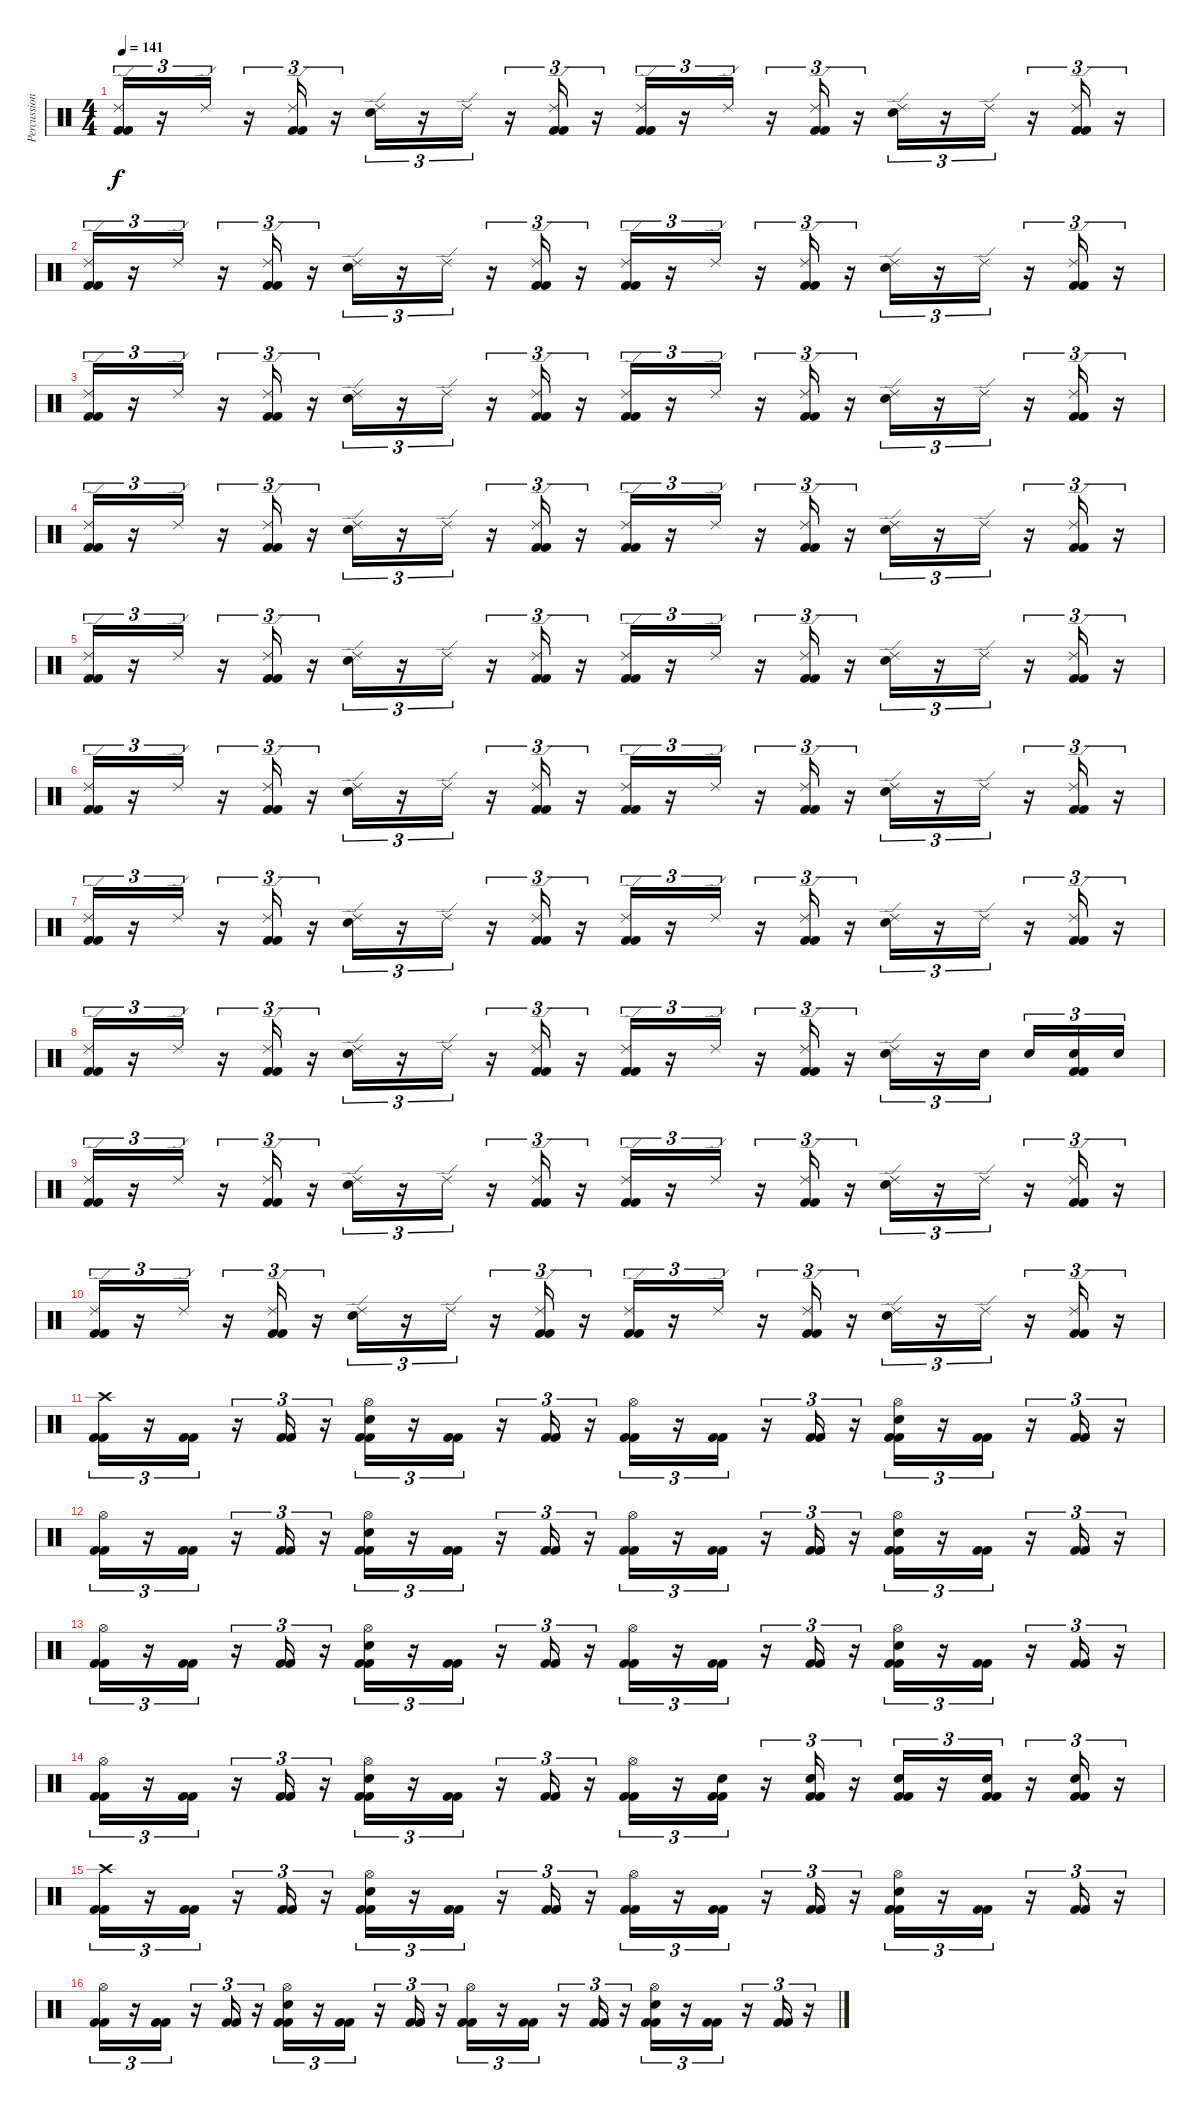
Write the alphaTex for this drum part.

\track ("Percussions" "Percussion") {instrument percussion}
\staff {score}
\articulation defaults
\ts (4 4)
\tempo 141
\clef neutral
\ks c
("Ride (edge) 2" "Kick (hit) 2" "Kick (hit) 2").16{tu (3 2) dy f} r.16{tu (3 2)} "Ride (edge) 2".16{tu (3 2)} r.16{tu (3 2)} ("Ride (edge) 2" "Kick (hit) 2" "Kick (hit) 2").16{tu (3 2)} r.16{tu (3 2)} ("Ride (edge) 2" "Snare (hit) 2").16{tu (3 2)} r.16{tu (3 2)} "Ride (edge) 2".16{tu (3 2)} r.16{tu (3 2)} ("Ride (edge) 2" "Kick (hit) 2" "Kick (hit) 2").16{tu (3 2)} r.16{tu (3 2)} ("Ride (edge) 2" "Kick (hit) 2" "Kick (hit) 2").16{tu (3 2)} r.16{tu (3 2)} "Ride (edge) 2".16{tu (3 2)} r.16{tu (3 2)} ("Ride (edge) 2" "Kick (hit) 2" "Kick (hit) 2").16{tu (3 2)} r.16{tu (3 2)} ("Ride (edge) 2" "Snare (hit) 2").16{tu (3 2)} r.16{tu (3 2)} "Ride (edge) 2".16{tu (3 2)} r.16{tu (3 2)} ("Ride (edge) 2" "Kick (hit) 2" "Kick (hit) 2").16{tu (3 2)} r.16{tu (3 2)} |
("Ride (edge) 2" "Kick (hit) 2" "Kick (hit) 2").16{tu (3 2)} r.16{tu (3 2)} "Ride (edge) 2".16{tu (3 2)} r.16{tu (3 2)} ("Ride (edge) 2" "Kick (hit) 2" "Kick (hit) 2").16{tu (3 2)} r.16{tu (3 2)} ("Ride (edge) 2" "Snare (hit) 2").16{tu (3 2)} r.16{tu (3 2)} "Ride (edge) 2".16{tu (3 2)} r.16{tu (3 2)} ("Ride (edge) 2" "Kick (hit) 2" "Kick (hit) 2").16{tu (3 2)} r.16{tu (3 2)} ("Ride (edge) 2" "Kick (hit) 2" "Kick (hit) 2").16{tu (3 2)} r.16{tu (3 2)} "Ride (edge) 2".16{tu (3 2)} r.16{tu (3 2)} ("Ride (edge) 2" "Kick (hit) 2" "Kick (hit) 2").16{tu (3 2)} r.16{tu (3 2)} ("Ride (edge) 2" "Snare (hit) 2").16{tu (3 2)} r.16{tu (3 2)} "Ride (edge) 2".16{tu (3 2)} r.16{tu (3 2)} ("Ride (edge) 2" "Kick (hit) 2" "Kick (hit) 2").16{tu (3 2)} r.16{tu (3 2)} |
("Ride (edge) 2" "Kick (hit) 2" "Kick (hit) 2").16{tu (3 2)} r.16{tu (3 2)} "Ride (edge) 2".16{tu (3 2)} r.16{tu (3 2)} ("Ride (edge) 2" "Kick (hit) 2" "Kick (hit) 2").16{tu (3 2)} r.16{tu (3 2)} ("Ride (edge) 2" "Snare (hit) 2").16{tu (3 2)} r.16{tu (3 2)} "Ride (edge) 2".16{tu (3 2)} r.16{tu (3 2)} ("Ride (edge) 2" "Kick (hit) 2" "Kick (hit) 2").16{tu (3 2)} r.16{tu (3 2)} ("Ride (edge) 2" "Kick (hit) 2" "Kick (hit) 2").16{tu (3 2)} r.16{tu (3 2)} "Ride (edge) 2".16{tu (3 2)} r.16{tu (3 2)} ("Ride (edge) 2" "Kick (hit) 2" "Kick (hit) 2").16{tu (3 2)} r.16{tu (3 2)} ("Ride (edge) 2" "Snare (hit) 2").16{tu (3 2)} r.16{tu (3 2)} "Ride (edge) 2".16{tu (3 2)} r.16{tu (3 2)} ("Ride (edge) 2" "Kick (hit) 2" "Kick (hit) 2").16{tu (3 2)} r.16{tu (3 2)} |
("Ride (edge) 2" "Kick (hit) 2" "Kick (hit) 2").16{tu (3 2)} r.16{tu (3 2)} "Ride (edge) 2".16{tu (3 2)} r.16{tu (3 2)} ("Ride (edge) 2" "Kick (hit) 2" "Kick (hit) 2").16{tu (3 2)} r.16{tu (3 2)} ("Ride (edge) 2" "Snare (hit) 2").16{tu (3 2)} r.16{tu (3 2)} "Ride (edge) 2".16{tu (3 2)} r.16{tu (3 2)} ("Ride (edge) 2" "Kick (hit) 2" "Kick (hit) 2").16{tu (3 2)} r.16{tu (3 2)} ("Ride (edge) 2" "Kick (hit) 2" "Kick (hit) 2").16{tu (3 2)} r.16{tu (3 2)} "Ride (edge) 2".16{tu (3 2)} r.16{tu (3 2)} ("Ride (edge) 2" "Kick (hit) 2" "Kick (hit) 2").16{tu (3 2)} r.16{tu (3 2)} ("Ride (edge) 2" "Snare (hit) 2").16{tu (3 2)} r.16{tu (3 2)} "Ride (edge) 2".16{tu (3 2)} r.16{tu (3 2)} ("Ride (edge) 2" "Kick (hit) 2" "Kick (hit) 2").16{tu (3 2)} r.16{tu (3 2)} |
("Ride (edge) 2" "Kick (hit) 2" "Kick (hit) 2").16{tu (3 2)} r.16{tu (3 2)} "Ride (edge) 2".16{tu (3 2)} r.16{tu (3 2)} ("Ride (edge) 2" "Kick (hit) 2" "Kick (hit) 2").16{tu (3 2)} r.16{tu (3 2)} ("Ride (edge) 2" "Snare (hit) 2").16{tu (3 2)} r.16{tu (3 2)} "Ride (edge) 2".16{tu (3 2)} r.16{tu (3 2)} ("Ride (edge) 2" "Kick (hit) 2" "Kick (hit) 2").16{tu (3 2)} r.16{tu (3 2)} ("Ride (edge) 2" "Kick (hit) 2" "Kick (hit) 2").16{tu (3 2)} r.16{tu (3 2)} "Ride (edge) 2".16{tu (3 2)} r.16{tu (3 2)} ("Ride (edge) 2" "Kick (hit) 2" "Kick (hit) 2").16{tu (3 2)} r.16{tu (3 2)} ("Ride (edge) 2" "Snare (hit) 2").16{tu (3 2)} r.16{tu (3 2)} "Ride (edge) 2".16{tu (3 2)} r.16{tu (3 2)} ("Ride (edge) 2" "Kick (hit) 2" "Kick (hit) 2").16{tu (3 2)} r.16{tu (3 2)} |
("Ride (edge) 2" "Kick (hit) 2" "Kick (hit) 2").16{tu (3 2)} r.16{tu (3 2)} "Ride (edge) 2".16{tu (3 2)} r.16{tu (3 2)} ("Ride (edge) 2" "Kick (hit) 2" "Kick (hit) 2").16{tu (3 2)} r.16{tu (3 2)} ("Ride (edge) 2" "Snare (hit) 2").16{tu (3 2)} r.16{tu (3 2)} "Ride (edge) 2".16{tu (3 2)} r.16{tu (3 2)} ("Ride (edge) 2" "Kick (hit) 2" "Kick (hit) 2").16{tu (3 2)} r.16{tu (3 2)} ("Ride (edge) 2" "Kick (hit) 2" "Kick (hit) 2").16{tu (3 2)} r.16{tu (3 2)} "Ride (edge) 2".16{tu (3 2)} r.16{tu (3 2)} ("Ride (edge) 2" "Kick (hit) 2" "Kick (hit) 2").16{tu (3 2)} r.16{tu (3 2)} ("Ride (edge) 2" "Snare (hit) 2").16{tu (3 2)} r.16{tu (3 2)} "Ride (edge) 2".16{tu (3 2)} r.16{tu (3 2)} ("Ride (edge) 2" "Kick (hit) 2" "Kick (hit) 2").16{tu (3 2)} r.16{tu (3 2)} |
("Ride (edge) 2" "Kick (hit) 2" "Kick (hit) 2").16{tu (3 2)} r.16{tu (3 2)} "Ride (edge) 2".16{tu (3 2)} r.16{tu (3 2)} ("Ride (edge) 2" "Kick (hit) 2" "Kick (hit) 2").16{tu (3 2)} r.16{tu (3 2)} ("Ride (edge) 2" "Snare (hit) 2").16{tu (3 2)} r.16{tu (3 2)} "Ride (edge) 2".16{tu (3 2)} r.16{tu (3 2)} ("Ride (edge) 2" "Kick (hit) 2" "Kick (hit) 2").16{tu (3 2)} r.16{tu (3 2)} ("Ride (edge) 2" "Kick (hit) 2" "Kick (hit) 2").16{tu (3 2)} r.16{tu (3 2)} "Ride (edge) 2".16{tu (3 2)} r.16{tu (3 2)} ("Ride (edge) 2" "Kick (hit) 2" "Kick (hit) 2").16{tu (3 2)} r.16{tu (3 2)} ("Ride (edge) 2" "Snare (hit) 2").16{tu (3 2)} r.16{tu (3 2)} "Ride (edge) 2".16{tu (3 2)} r.16{tu (3 2)} ("Ride (edge) 2" "Kick (hit) 2" "Kick (hit) 2").16{tu (3 2)} r.16{tu (3 2)} |
("Ride (edge) 2" "Kick (hit) 2" "Kick (hit) 2").16{tu (3 2)} r.16{tu (3 2)} "Ride (edge) 2".16{tu (3 2)} r.16{tu (3 2)} ("Ride (edge) 2" "Kick (hit) 2" "Kick (hit) 2").16{tu (3 2)} r.16{tu (3 2)} ("Ride (edge) 2" "Snare (hit) 2").16{tu (3 2)} r.16{tu (3 2)} "Ride (edge) 2".16{tu (3 2)} r.16{tu (3 2)} ("Ride (edge) 2" "Kick (hit) 2" "Kick (hit) 2").16{tu (3 2)} r.16{tu (3 2)} ("Ride (edge) 2" "Kick (hit) 2" "Kick (hit) 2").16{tu (3 2)} r.16{tu (3 2)} "Ride (edge) 2".16{tu (3 2)} r.16{tu (3 2)} ("Ride (edge) 2" "Kick (hit) 2" "Kick (hit) 2").16{tu (3 2)} r.16{tu (3 2)} ("Ride (edge) 2" "Snare (hit) 2").16{tu (3 2)} r.16{tu (3 2)} "Snare (hit) 2".16{tu (3 2)} "Snare (hit) 2".16{tu (3 2)} ("Snare (hit) 2" "Kick (hit) 2" "Kick (hit) 2").16{tu (3 2)} "Snare (hit) 2".16{tu (3 2)} |
("Ride (edge) 2" "Kick (hit) 2" "Kick (hit) 2").16{tu (3 2)} r.16{tu (3 2)} "Ride (edge) 2".16{tu (3 2)} r.16{tu (3 2)} ("Ride (edge) 2" "Kick (hit) 2" "Kick (hit) 2").16{tu (3 2)} r.16{tu (3 2)} ("Ride (edge) 2" "Snare (hit) 2").16{tu (3 2)} r.16{tu (3 2)} "Ride (edge) 2".16{tu (3 2)} r.16{tu (3 2)} ("Ride (edge) 2" "Kick (hit) 2" "Kick (hit) 2").16{tu (3 2)} r.16{tu (3 2)} ("Ride (edge) 2" "Kick (hit) 2" "Kick (hit) 2").16{tu (3 2)} r.16{tu (3 2)} "Ride (edge) 2".16{tu (3 2)} r.16{tu (3 2)} ("Ride (edge) 2" "Kick (hit) 2" "Kick (hit) 2").16{tu (3 2)} r.16{tu (3 2)} ("Ride (edge) 2" "Snare (hit) 2").16{tu (3 2)} r.16{tu (3 2)} "Ride (edge) 2".16{tu (3 2)} r.16{tu (3 2)} ("Ride (edge) 2" "Kick (hit) 2" "Kick (hit) 2").16{tu (3 2)} r.16{tu (3 2)} |
("Ride (edge) 2" "Kick (hit) 2" "Kick (hit) 2").16{tu (3 2)} r.16{tu (3 2)} "Ride (edge) 2".16{tu (3 2)} r.16{tu (3 2)} ("Ride (edge) 2" "Kick (hit) 2" "Kick (hit) 2").16{tu (3 2)} r.16{tu (3 2)} ("Ride (edge) 2" "Snare (hit) 2").16{tu (3 2)} r.16{tu (3 2)} "Ride (edge) 2".16{tu (3 2)} r.16{tu (3 2)} ("Ride (edge) 2" "Kick (hit) 2" "Kick (hit) 2").16{tu (3 2)} r.16{tu (3 2)} ("Ride (edge) 2" "Kick (hit) 2" "Kick (hit) 2").16{tu (3 2)} r.16{tu (3 2)} "Ride (edge) 2".16{tu (3 2)} r.16{tu (3 2)} ("Ride (edge) 2" "Kick (hit) 2" "Kick (hit) 2").16{tu (3 2)} r.16{tu (3 2)} ("Ride (edge) 2" "Snare (hit) 2").16{tu (3 2)} r.16{tu (3 2)} "Ride (edge) 2".16{tu (3 2)} r.16{tu (3 2)} ("Ride (edge) 2" "Kick (hit) 2" "Kick (hit) 2").16{tu (3 2)} r.16{tu (3 2)} |
("Crash high (hit)" "Kick (hit) 2" "Kick (hit) 2").16{tu (3 2)} r.16{tu (3 2)} ("Kick (hit) 2" "Kick (hit) 2").16{tu (3 2)} r.16{tu (3 2)} ("Kick (hit) 2" "Kick (hit) 2").16{tu (3 2)} r.16{tu (3 2)} ("Hi-Hat (open)" "Snare (hit) 2" "Kick (hit) 2" "Kick (hit) 2").16{tu (3 2)} r.16{tu (3 2)} ("Kick (hit) 2" "Kick (hit) 2").16{tu (3 2)} r.16{tu (3 2)} ("Kick (hit) 2" "Kick (hit) 2").16{tu (3 2)} r.16{tu (3 2)} ("Hi-Hat (open)" "Kick (hit) 2" "Kick (hit) 2").16{tu (3 2)} r.16{tu (3 2)} ("Kick (hit) 2" "Kick (hit) 2").16{tu (3 2)} r.16{tu (3 2)} ("Kick (hit) 2" "Kick (hit) 2").16{tu (3 2)} r.16{tu (3 2)} ("Hi-Hat (open)" "Snare (hit) 2" "Kick (hit) 2" "Kick (hit) 2").16{tu (3 2)} r.16{tu (3 2)} ("Kick (hit) 2" "Kick (hit) 2").16{tu (3 2)} r.16{tu (3 2)} ("Kick (hit) 2" "Kick (hit) 2").16{tu (3 2)} r.16{tu (3 2)} |
("Hi-Hat (open)" "Kick (hit) 2" "Kick (hit) 2").16{tu (3 2)} r.16{tu (3 2)} ("Kick (hit) 2" "Kick (hit) 2").16{tu (3 2)} r.16{tu (3 2)} ("Kick (hit) 2" "Kick (hit) 2").16{tu (3 2)} r.16{tu (3 2)} ("Hi-Hat (open)" "Snare (hit) 2" "Kick (hit) 2" "Kick (hit) 2").16{tu (3 2)} r.16{tu (3 2)} ("Kick (hit) 2" "Kick (hit) 2").16{tu (3 2)} r.16{tu (3 2)} ("Kick (hit) 2" "Kick (hit) 2").16{tu (3 2)} r.16{tu (3 2)} ("Hi-Hat (open)" "Kick (hit) 2" "Kick (hit) 2").16{tu (3 2)} r.16{tu (3 2)} ("Kick (hit) 2" "Kick (hit) 2").16{tu (3 2)} r.16{tu (3 2)} ("Kick (hit) 2" "Kick (hit) 2").16{tu (3 2)} r.16{tu (3 2)} ("Hi-Hat (open)" "Snare (hit) 2" "Kick (hit) 2" "Kick (hit) 2").16{tu (3 2)} r.16{tu (3 2)} ("Kick (hit) 2" "Kick (hit) 2").16{tu (3 2)} r.16{tu (3 2)} ("Kick (hit) 2" "Kick (hit) 2").16{tu (3 2)} r.16{tu (3 2)} |
("Hi-Hat (open)" "Kick (hit) 2" "Kick (hit) 2").16{tu (3 2)} r.16{tu (3 2)} ("Kick (hit) 2" "Kick (hit) 2").16{tu (3 2)} r.16{tu (3 2)} ("Kick (hit) 2" "Kick (hit) 2").16{tu (3 2)} r.16{tu (3 2)} ("Hi-Hat (open)" "Snare (hit) 2" "Kick (hit) 2" "Kick (hit) 2").16{tu (3 2)} r.16{tu (3 2)} ("Kick (hit) 2" "Kick (hit) 2").16{tu (3 2)} r.16{tu (3 2)} ("Kick (hit) 2" "Kick (hit) 2").16{tu (3 2)} r.16{tu (3 2)} ("Hi-Hat (open)" "Kick (hit) 2" "Kick (hit) 2").16{tu (3 2)} r.16{tu (3 2)} ("Kick (hit) 2" "Kick (hit) 2").16{tu (3 2)} r.16{tu (3 2)} ("Kick (hit) 2" "Kick (hit) 2").16{tu (3 2)} r.16{tu (3 2)} ("Hi-Hat (open)" "Snare (hit) 2" "Kick (hit) 2" "Kick (hit) 2").16{tu (3 2)} r.16{tu (3 2)} ("Kick (hit) 2" "Kick (hit) 2").16{tu (3 2)} r.16{tu (3 2)} ("Kick (hit) 2" "Kick (hit) 2").16{tu (3 2)} r.16{tu (3 2)} |
("Hi-Hat (open)" "Kick (hit) 2" "Kick (hit) 2").16{tu (3 2)} r.16{tu (3 2)} ("Kick (hit) 2" "Kick (hit) 2").16{tu (3 2)} r.16{tu (3 2)} ("Kick (hit) 2" "Kick (hit) 2").16{tu (3 2)} r.16{tu (3 2)} ("Hi-Hat (open)" "Snare (hit) 2" "Kick (hit) 2" "Kick (hit) 2").16{tu (3 2)} r.16{tu (3 2)} ("Kick (hit) 2" "Kick (hit) 2").16{tu (3 2)} r.16{tu (3 2)} ("Kick (hit) 2" "Kick (hit) 2").16{tu (3 2)} r.16{tu (3 2)} ("Hi-Hat (open)" "Kick (hit) 2" "Kick (hit) 2").16{tu (3 2)} r.16{tu (3 2)} ("Snare (hit) 2" "Kick (hit) 2" "Kick (hit) 2").16{tu (3 2)} r.16{tu (3 2)} ("Snare (hit) 2" "Kick (hit) 2" "Kick (hit) 2").16{tu (3 2)} r.16{tu (3 2)} ("Snare (hit) 2" "Kick (hit) 2" "Kick (hit) 2").16{tu (3 2)} r.16{tu (3 2)} ("Snare (hit) 2" "Kick (hit) 2" "Kick (hit) 2").16{tu (3 2)} r.16{tu (3 2)} ("Snare (hit) 2" "Kick (hit) 2" "Kick (hit) 2").16{tu (3 2)} r.16{tu (3 2)} |
("Crash high (hit)" "Kick (hit) 2" "Kick (hit) 2").16{tu (3 2)} r.16{tu (3 2)} ("Kick (hit) 2" "Kick (hit) 2").16{tu (3 2)} r.16{tu (3 2)} ("Kick (hit) 2" "Kick (hit) 2").16{tu (3 2)} r.16{tu (3 2)} ("Hi-Hat (open)" "Snare (hit) 2" "Kick (hit) 2" "Kick (hit) 2").16{tu (3 2)} r.16{tu (3 2)} ("Kick (hit) 2" "Kick (hit) 2").16{tu (3 2)} r.16{tu (3 2)} ("Kick (hit) 2" "Kick (hit) 2").16{tu (3 2)} r.16{tu (3 2)} ("Hi-Hat (open)" "Kick (hit) 2" "Kick (hit) 2").16{tu (3 2)} r.16{tu (3 2)} ("Kick (hit) 2" "Kick (hit) 2").16{tu (3 2)} r.16{tu (3 2)} ("Kick (hit) 2" "Kick (hit) 2").16{tu (3 2)} r.16{tu (3 2)} ("Hi-Hat (open)" "Snare (hit) 2" "Kick (hit) 2" "Kick (hit) 2").16{tu (3 2)} r.16{tu (3 2)} ("Kick (hit) 2" "Kick (hit) 2").16{tu (3 2)} r.16{tu (3 2)} ("Kick (hit) 2" "Kick (hit) 2").16{tu (3 2)} r.16{tu (3 2)} |
("Hi-Hat (open)" "Kick (hit) 2" "Kick (hit) 2").16{tu (3 2)} r.16{tu (3 2)} ("Kick (hit) 2" "Kick (hit) 2").16{tu (3 2)} r.16{tu (3 2)} ("Kick (hit) 2" "Kick (hit) 2").16{tu (3 2)} r.16{tu (3 2)} ("Hi-Hat (open)" "Snare (hit) 2" "Kick (hit) 2" "Kick (hit) 2").16{tu (3 2)} r.16{tu (3 2)} ("Kick (hit) 2" "Kick (hit) 2").16{tu (3 2)} r.16{tu (3 2)} ("Kick (hit) 2" "Kick (hit) 2").16{tu (3 2)} r.16{tu (3 2)} ("Hi-Hat (open)" "Kick (hit) 2" "Kick (hit) 2").16{tu (3 2)} r.16{tu (3 2)} ("Kick (hit) 2" "Kick (hit) 2").16{tu (3 2)} r.16{tu (3 2)} ("Kick (hit) 2" "Kick (hit) 2").16{tu (3 2)} r.16{tu (3 2)} ("Hi-Hat (open)" "Snare (hit) 2" "Kick (hit) 2" "Kick (hit) 2").16{tu (3 2)} r.16{tu (3 2)} ("Kick (hit) 2" "Kick (hit) 2").16{tu (3 2)} r.16{tu (3 2)} ("Kick (hit) 2" "Kick (hit) 2").16{tu (3 2)} r.16{tu (3 2)}
